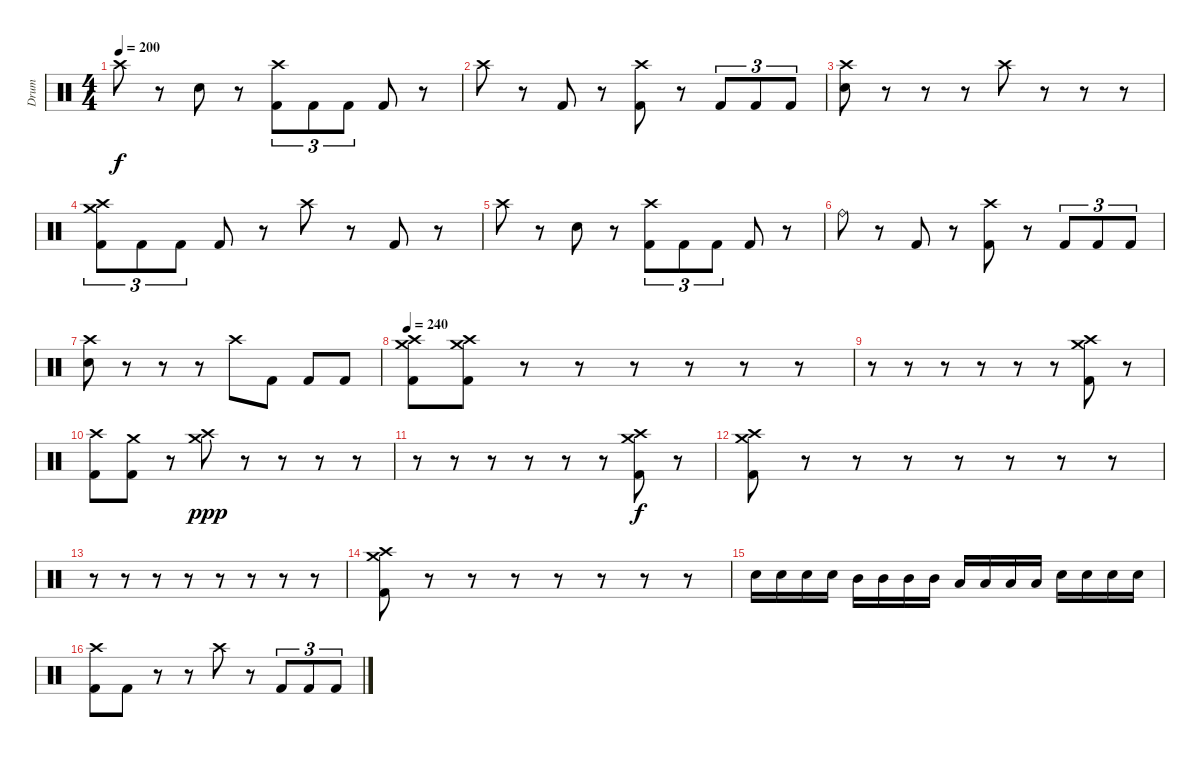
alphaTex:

\track ("Drum" "Drum") {instrument percussion}
\staff {score}
\articulation defaults
\ts (4 4)
\tempo 200
\clef neutral
\ks c "Crash high (hit)".8{dy f}
r.8 "Electric Snare (hit)".8 r.8 ("Crash high (hit)" "Kick (hit) 2").8{tu (3 2)} "Kick (hit) 2".8{tu (3 2)} "Kick (hit) 2".8{tu (3 2)} "Kick (hit) 2".8 r.8 |
"Crash high (hit)".8 r.8 "Kick (hit) 2".8 r.8 ("Crash high (hit)" "Kick (hit) 2").8 r.8 "Kick (hit) 2".8{tu (3 2)} "Kick (hit) 2".8{tu (3 2)} "Kick (hit) 2".8{tu (3 2)} |
("Crash high (hit)" "Electric Snare (hit)").8 r.8 r.8 r.8 "Crash high (hit)".8 r.8 r.8 r.8 |
("Crash medium (hit)" "Crash high (hit)" "Kick (hit) 2").8{tu (3 2)} "Kick (hit) 2".8{tu (3 2)} "Kick (hit) 2".8{tu (3 2)} "Kick (hit) 2".8 r.8 "Crash high (hit)".8 r.8 "Kick (hit) 2".8 r.8 |
"Crash high (hit)".8 r.8 "Electric Snare (hit)".8 r.8 ("Crash high (hit)" "Kick (hit) 2").8{tu (3 2)} "Kick (hit) 2".8{tu (3 2)} "Kick (hit) 2".8{tu (3 2)} "Kick (hit) 2".8 r.8 |
"Ride (bell)".8 r.8 "Kick (hit) 2".8 r.8 ("Crash high (hit)" "Kick (hit) 2").8 r.8 "Kick (hit) 2".8{tu (3 2)} "Kick (hit) 2".8{tu (3 2)} "Kick (hit) 2".8{tu (3 2)} |
("Crash high (hit)" "Electric Snare (hit)").8 r.8 r.8 r.8 "Crash high (hit)".8 "Kick (hit) 2".8 "Kick (hit) 2".8 "Kick (hit) 2".8 |
\tempo 240
("Crash medium (hit)" "Crash high (hit)" "Kick (hit) 2").8 ("Crash medium (hit)" "Crash high (hit)" "Kick (hit) 2").8 r.8 r.8 r.8 r.8 r.8 r.8 |
r.8 r.8 r.8 r.8 r.8 r.8 ("Crash medium (hit)" "Crash high (hit)" "Kick (hit) 2").8 r.8 |
("Crash high (hit)" "Kick (hit) 2").8 ("Crash medium (hit)" "Kick (hit) 2").8 r.8 ("Crash medium (hit)" "Crash high (hit)").8{dy ppp} r.8 r.8 r.8 r.8 |
r.8 r.8 r.8 r.8 r.8 r.8 ("Crash medium (hit)" "Crash high (hit)" "Kick (hit) 2").8{dy f} r.8 |
("Crash medium (hit)" "Crash high (hit)" "Kick (hit) 2").8 r.8 r.8 r.8 r.8 r.8 r.8 r.8 |
r.8 r.8 r.8 r.8 r.8 r.8 r.8 r.8 |
("Crash medium (hit)" "Crash high (hit)" "Kick (hit) 2").8 r.8 r.8 r.8 r.8 r.8 r.8 r.8 |
"Electric Snare (hit)".16 "Electric Snare (hit)".16 "Electric Snare (hit)".16 "Electric Snare (hit)".16 "Mid Tom (hit)".16 "Mid Tom (hit)".16 "Mid Tom (hit)".16 "Mid Tom (hit)".16 "Low Tom (hit)".16 "Low Tom (hit)".16 "Low Tom (hit)".16 "Low Tom (hit)".16 "Electric Snare (hit)".16 "Electric Snare (hit)".16 "Electric Snare (hit)".16 "Electric Snare (hit)".16 |
("Crash high (hit)" "Kick (hit) 2").8 "Kick (hit) 2".8 r.8 r.8 "Crash high (hit)".8 r.8 "Kick (hit) 2".8{tu (3 2)} "Kick (hit) 2".8{tu (3 2)} "Kick (hit) 2".8{tu (3 2)}
